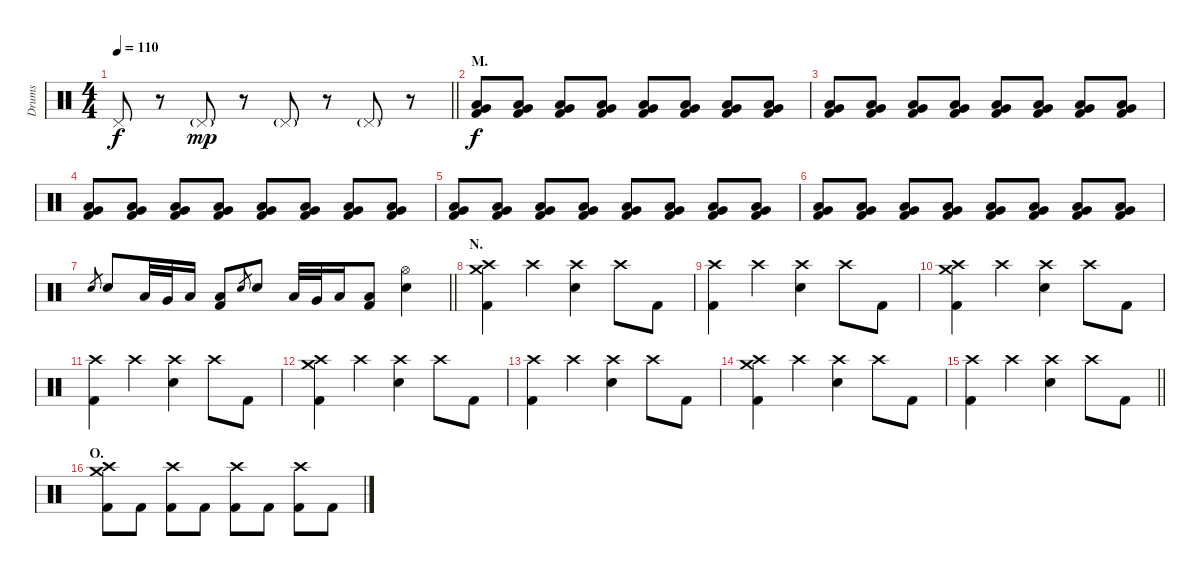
\track ("Drums" "Drums") {instrument percussion}
\staff {score}
\articulation defaults
\ts (4 4)
\tempo 110
\clef neutral
\barLineRight lightlight
\ks c "Pedal Hi-Hat (hit)".8{dy f}
r.8 "Pedal Hi-Hat (hit)"{g}.8{dy mp} r.8 "Pedal Hi-Hat (hit)"{g}.8 r.8 "Pedal Hi-Hat (hit)"{g}.8 r.8 |
\section ("" "M.")
("Very Low Tom (hit)" "Low Floor Tom (hit)" "Kick (hit) 2").8{dy f volume 4} ("Very Low Tom (hit)" "Low Floor Tom (hit)" "Kick (hit) 2").8 ("Very Low Tom (hit)" "Low Floor Tom (hit)" "Kick (hit) 2").8{volume 10} ("Very Low Tom (hit)" "Low Floor Tom (hit)" "Kick (hit) 2").8 ("Very Low Tom (hit)" "Low Floor Tom (hit)" "Kick (hit) 2").8 ("Very Low Tom (hit)" "Low Floor Tom (hit)" "Kick (hit) 2").8 ("Very Low Tom (hit)" "Low Floor Tom (hit)" "Kick (hit) 2").8 ("Very Low Tom (hit)" "Low Floor Tom (hit)" "Kick (hit) 2").8 |
("Very Low Tom (hit)" "Low Floor Tom (hit)" "Kick (hit) 2").8 ("Very Low Tom (hit)" "Low Floor Tom (hit)" "Kick (hit) 2").8 ("Very Low Tom (hit)" "Low Floor Tom (hit)" "Kick (hit) 2").8 ("Very Low Tom (hit)" "Low Floor Tom (hit)" "Kick (hit) 2").8 ("Very Low Tom (hit)" "Low Floor Tom (hit)" "Kick (hit) 2").8 ("Very Low Tom (hit)" "Low Floor Tom (hit)" "Kick (hit) 2").8 ("Very Low Tom (hit)" "Low Floor Tom (hit)" "Kick (hit) 2").8 ("Very Low Tom (hit)" "Low Floor Tom (hit)" "Kick (hit) 2").8 |
("Very Low Tom (hit)" "Low Floor Tom (hit)" "Kick (hit) 2").8 ("Very Low Tom (hit)" "Low Floor Tom (hit)" "Kick (hit) 2").8 ("Very Low Tom (hit)" "Low Floor Tom (hit)" "Kick (hit) 2").8 ("Very Low Tom (hit)" "Low Floor Tom (hit)" "Kick (hit) 2").8 ("Very Low Tom (hit)" "Low Floor Tom (hit)" "Kick (hit) 2").8 ("Very Low Tom (hit)" "Low Floor Tom (hit)" "Kick (hit) 2").8 ("Very Low Tom (hit)" "Low Floor Tom (hit)" "Kick (hit) 2").8 ("Very Low Tom (hit)" "Low Floor Tom (hit)" "Kick (hit) 2").8 |
("Very Low Tom (hit)" "Low Floor Tom (hit)" "Kick (hit) 2").8 ("Very Low Tom (hit)" "Low Floor Tom (hit)" "Kick (hit) 2").8 ("Very Low Tom (hit)" "Low Floor Tom (hit)" "Kick (hit) 2").8 ("Very Low Tom (hit)" "Low Floor Tom (hit)" "Kick (hit) 2").8 ("Very Low Tom (hit)" "Low Floor Tom (hit)" "Kick (hit) 2").8 ("Very Low Tom (hit)" "Low Floor Tom (hit)" "Kick (hit) 2").8 ("Very Low Tom (hit)" "Low Floor Tom (hit)" "Kick (hit) 2").8 ("Very Low Tom (hit)" "Low Floor Tom (hit)" "Kick (hit) 2").8 |
("Very Low Tom (hit)" "Low Floor Tom (hit)" "Kick (hit) 2").8{volume 14} ("Very Low Tom (hit)" "Low Floor Tom (hit)" "Kick (hit) 2").8 ("Very Low Tom (hit)" "Low Floor Tom (hit)" "Kick (hit) 2").8 ("Very Low Tom (hit)" "Low Floor Tom (hit)" "Kick (hit) 2").8 ("Very Low Tom (hit)" "Low Floor Tom (hit)" "Kick (hit) 2").8 ("Very Low Tom (hit)" "Low Floor Tom (hit)" "Kick (hit) 2").8 ("Very Low Tom (hit)" "Low Floor Tom (hit)" "Kick (hit) 2").8 ("Very Low Tom (hit)" "Low Floor Tom (hit)" "Kick (hit) 2").8 |
\barLineRight lightlight "Electric Snare (hit)".8{gr} "Electric Snare (hit)".8 "Low Tom (hit)".32 "Very Low Tom (hit)".32 "Low Floor Tom (hit)".16
("Low Floor Tom (hit)" "Kick (hit) 2").8 "Electric Snare (hit)".8{gr} "Electric Snare (hit)".8 "Low Tom (hit)".32 "Very Low Tom (hit)".32 "Low Floor Tom (hit)".16 ("Low Floor Tom (hit)" "Kick (hit) 2").8 ("Hi-Hat (open)" "Electric Snare (hit)").4 |
\section ("" "N.")
("Crash medium (hit)" "Crash high (hit)" "Kick (hit) 2").4 "Crash high (hit)".4 ("Crash high (hit)" "Electric Snare (hit)").4 "Crash high (hit)".8 "Kick (hit) 2".8 |
("Crash high (hit)" "Kick (hit) 2").4 "Crash high (hit)".4 ("Crash high (hit)" "Electric Snare (hit)").4 "Crash high (hit)".8 "Kick (hit) 2".8 |
("Crash medium (hit)" "Crash high (hit)" "Kick (hit) 2").4 "Crash high (hit)".4 ("Crash high (hit)" "Electric Snare (hit)").4 "Crash high (hit)".8 "Kick (hit) 2".8 |
("Crash high (hit)" "Kick (hit) 2").4 "Crash high (hit)".4 ("Crash high (hit)" "Electric Snare (hit)").4 "Crash high (hit)".8 "Kick (hit) 2".8 |
("Crash medium (hit)" "Crash high (hit)" "Kick (hit) 2").4 "Crash high (hit)".4 ("Crash high (hit)" "Electric Snare (hit)").4 "Crash high (hit)".8 "Kick (hit) 2".8 |
("Crash high (hit)" "Kick (hit) 2").4 "Crash high (hit)".4 ("Crash high (hit)" "Electric Snare (hit)").4 "Crash high (hit)".8 "Kick (hit) 2".8 |
("Crash medium (hit)" "Crash high (hit)" "Kick (hit) 2").4 "Crash high (hit)".4 ("Crash high (hit)" "Electric Snare (hit)").4 "Crash high (hit)".8 "Kick (hit) 2".8 |
\barLineRight lightlight
("Crash high (hit)" "Kick (hit) 2").4 "Crash high (hit)".4 ("Crash high (hit)" "Electric Snare (hit)").4 "Crash high (hit)".8 "Kick (hit) 2".8 |
\section ("" "O.")
("Crash medium (hit)" "Crash high (hit)" "Kick (hit) 2").8 "Kick (hit) 2".8 ("Crash high (hit)" "Kick (hit) 2").8 "Kick (hit) 2".8 ("Crash high (hit)" "Kick (hit) 2").8 "Kick (hit) 2".8 ("Crash high (hit)" "Kick (hit) 2").8 "Kick (hit) 2".8
